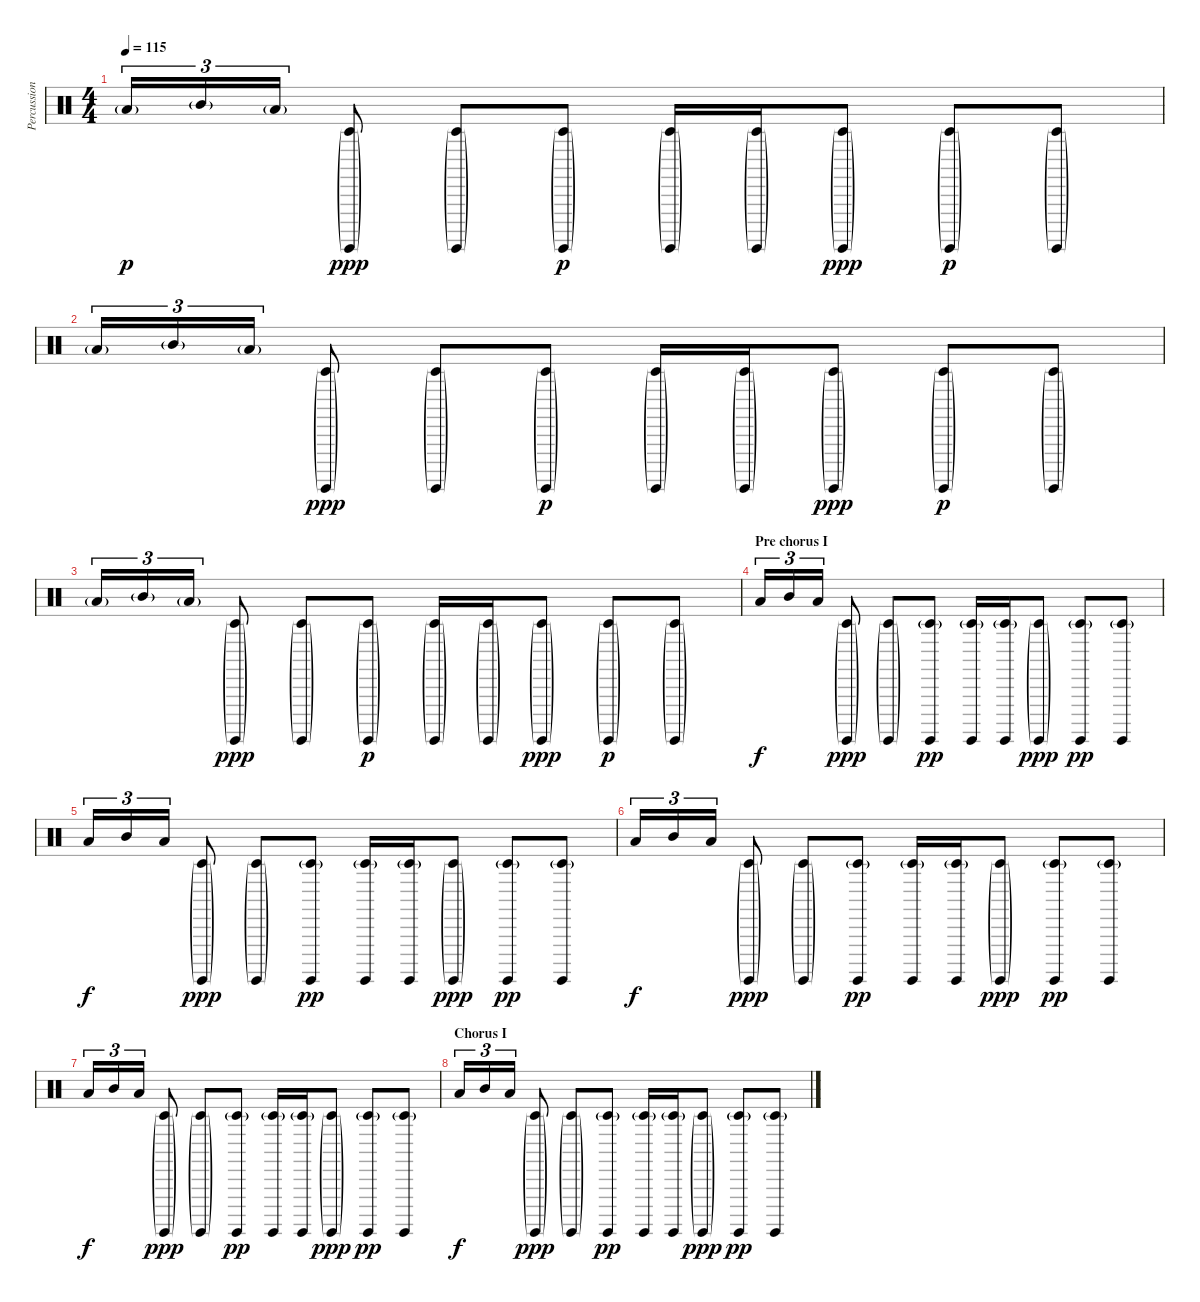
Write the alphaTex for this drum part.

\track ("Percussion - Low Tom" "Percussion") {instrument percussion}
\staff {score}
\articulation defaults
\ts (4 4)
\tempo 115
\clef neutral
\ks c "Low Tom (hit)"{g}.16{tu (3 2) dy p} "Mid Tom (hit)"{g}.16{tu (3 2)} "Low Tom (hit)"{g}.16{tu (3 2)}
("Timbale low (hit)"{g} "Surdo (hit)"{g}).8{dy ppp} ("Timbale low (hit)"{g} "Surdo (hit)"{g}).8 ("Timbale low (hit)"{g} "Surdo (hit)"{g}).8{dy p} ("Timbale low (hit)"{g} "Surdo (hit)"{g}).16 ("Timbale low (hit)"{g} "Surdo (hit)"{g}).16 ("Timbale low (hit)"{g} "Surdo (hit)"{g}).8{dy ppp} ("Timbale low (hit)"{g} "Surdo (hit)"{g}).8{dy p} ("Timbale low (hit)"{g} "Surdo (hit)"{g}).8 |
"Low Tom (hit)"{g}.16{tu (3 2)} "Mid Tom (hit)"{g}.16{tu (3 2)} "Low Tom (hit)"{g}.16{tu (3 2)} ("Timbale low (hit)"{g} "Surdo (hit)"{g}).8{dy ppp} ("Timbale low (hit)"{g} "Surdo (hit)"{g}).8 ("Timbale low (hit)"{g} "Surdo (hit)"{g}).8{dy p} ("Timbale low (hit)"{g} "Surdo (hit)"{g}).16 ("Timbale low (hit)"{g} "Surdo (hit)"{g}).16 ("Timbale low (hit)"{g} "Surdo (hit)"{g}).8{dy ppp} ("Timbale low (hit)"{g} "Surdo (hit)"{g}).8{dy p} ("Timbale low (hit)"{g} "Surdo (hit)"{g}).8 |
"Low Tom (hit)"{g}.16{tu (3 2)} "Mid Tom (hit)"{g}.16{tu (3 2)} "Low Tom (hit)"{g}.16{tu (3 2)} ("Timbale low (hit)"{g} "Surdo (hit)"{g}).8{dy ppp} ("Timbale low (hit)"{g} "Surdo (hit)"{g}).8 ("Timbale low (hit)"{g} "Surdo (hit)"{g}).8{dy p} ("Timbale low (hit)"{g} "Surdo (hit)"{g}).16 ("Timbale low (hit)"{g} "Surdo (hit)"{g}).16 ("Timbale low (hit)"{g} "Surdo (hit)"{g}).8{dy ppp} ("Timbale low (hit)"{g} "Surdo (hit)"{g}).8{dy p} ("Timbale low (hit)"{g} "Surdo (hit)"{g}).8 |
\section ("" "Pre chorus I")
"Low Tom (hit)".16{tu (3 2) dy f} "Mid Tom (hit)".16{tu (3 2)} "Low Tom (hit)".16{tu (3 2)} ("Timbale low (hit)"{g} "Surdo (hit)"{g}).8{dy ppp} ("Timbale low (hit)"{g} "Surdo (hit)"{g}).8 ("Timbale low (hit)"{g} "Surdo (hit)").8{dy pp} ("Timbale low (hit)"{g} "Surdo (hit)").16 ("Timbale low (hit)"{g} "Surdo (hit)").16 ("Timbale low (hit)"{g} "Surdo (hit)"{g}).8{dy ppp} ("Timbale low (hit)"{g} "Surdo (hit)").8{dy pp} ("Timbale low (hit)"{g} "Surdo (hit)").8 |
"Low Tom (hit)".16{tu (3 2) dy f} "Mid Tom (hit)".16{tu (3 2)} "Low Tom (hit)".16{tu (3 2)} ("Timbale low (hit)"{g} "Surdo (hit)"{g}).8{dy ppp} ("Timbale low (hit)"{g} "Surdo (hit)"{g}).8 ("Timbale low (hit)"{g} "Surdo (hit)").8{dy pp} ("Timbale low (hit)"{g} "Surdo (hit)").16 ("Timbale low (hit)"{g} "Surdo (hit)").16 ("Timbale low (hit)"{g} "Surdo (hit)"{g}).8{dy ppp} ("Timbale low (hit)"{g} "Surdo (hit)").8{dy pp} ("Timbale low (hit)"{g} "Surdo (hit)").8 |
"Low Tom (hit)".16{tu (3 2) dy f} "Mid Tom (hit)".16{tu (3 2)} "Low Tom (hit)".16{tu (3 2)} ("Timbale low (hit)"{g} "Surdo (hit)"{g}).8{dy ppp} ("Timbale low (hit)"{g} "Surdo (hit)"{g}).8 ("Timbale low (hit)"{g} "Surdo (hit)").8{dy pp} ("Timbale low (hit)"{g} "Surdo (hit)").16 ("Timbale low (hit)"{g} "Surdo (hit)").16 ("Timbale low (hit)"{g} "Surdo (hit)"{g}).8{dy ppp} ("Timbale low (hit)"{g} "Surdo (hit)").8{dy pp} ("Timbale low (hit)"{g} "Surdo (hit)").8 |
"Low Tom (hit)".16{tu (3 2) dy f} "Mid Tom (hit)".16{tu (3 2)} "Low Tom (hit)".16{tu (3 2)} ("Timbale low (hit)"{g} "Surdo (hit)"{g}).8{dy ppp} ("Timbale low (hit)"{g} "Surdo (hit)"{g}).8 ("Timbale low (hit)"{g} "Surdo (hit)").8{dy pp} ("Timbale low (hit)"{g} "Surdo (hit)").16 ("Timbale low (hit)"{g} "Surdo (hit)").16 ("Timbale low (hit)"{g} "Surdo (hit)"{g}).8{dy ppp} ("Timbale low (hit)"{g} "Surdo (hit)").8{dy pp} ("Timbale low (hit)"{g} "Surdo (hit)").8 |
\section ("" "Chorus I")
"Low Tom (hit)".16{tu (3 2) dy f} "Mid Tom (hit)".16{tu (3 2)} "Low Tom (hit)".16{tu (3 2)} ("Timbale low (hit)"{g} "Surdo (hit)"{g}).8{dy ppp} ("Timbale low (hit)"{g} "Surdo (hit)"{g}).8 ("Timbale low (hit)"{g} "Surdo (hit)").8{dy pp} ("Timbale low (hit)"{g} "Surdo (hit)").16 ("Timbale low (hit)"{g} "Surdo (hit)").16 ("Timbale low (hit)"{g} "Surdo (hit)"{g}).8{dy ppp} ("Timbale low (hit)"{g} "Surdo (hit)").8{dy pp} ("Timbale low (hit)"{g} "Surdo (hit)").8
